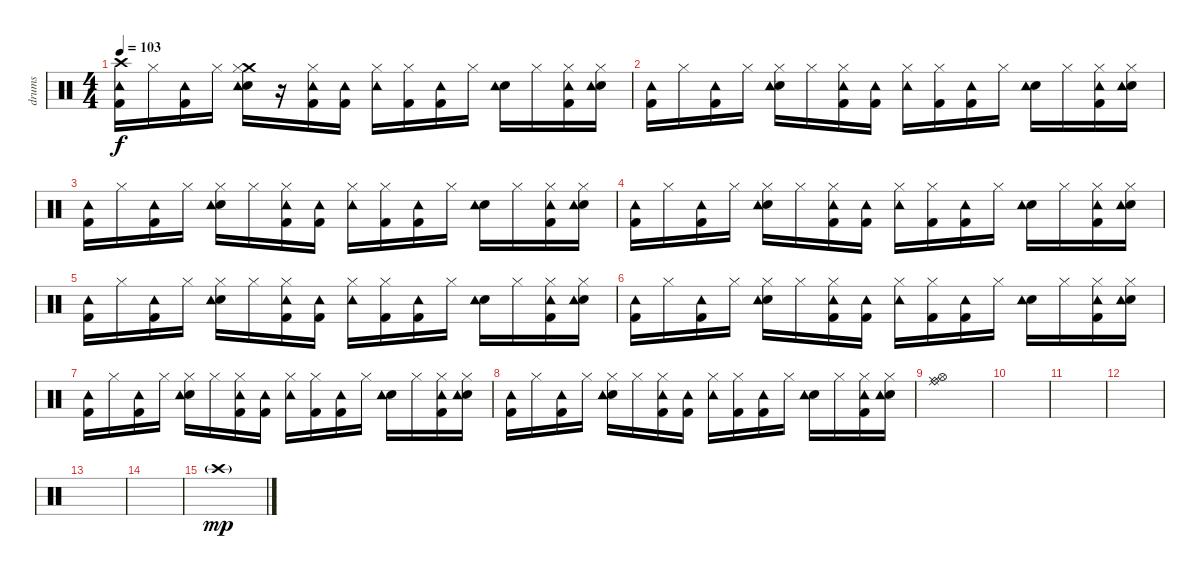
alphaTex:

\track ("drums" "drums") {instrument percussion}
\staff {score}
\articulation defaults
\ts (4 4)
\tempo 103
\clef neutral
\ks c
("Kick (hit) 2" "Crash high (hit)" "Tambourine (hit)").16{dy f} "Hi-Hat (closed)".16 ("Kick (hit) 2" "Tambourine (hit)").16 "Hi-Hat (closed)".16 ("Electric Snare (hit)" "Crash medium (hit)" "Hi-Hat (closed)" "Tambourine (hit)").16 r.16 ("Kick (hit) 2" "Hi-Hat (closed)" "Tambourine (hit)").16 ("Kick (hit) 2" "Tambourine (hit)").16 ("Hi-Hat (closed)" "Tambourine (hit)").16 ("Kick (hit) 2" "Hi-Hat (closed)").16 ("Kick (hit) 2" "Tambourine (hit)").16 "Hi-Hat (closed)".16 ("Electric Snare (hit)" "Tambourine (hit)").16 "Hi-Hat (closed)".16 ("Kick (hit) 2" "Hi-Hat (closed)" "Tambourine (hit)").16 ("Electric Snare (hit)" "Hi-Hat (closed)" "Tambourine (hit)").16 |
("Kick (hit) 2" "Tambourine (hit)").16 "Hi-Hat (closed)".16 ("Kick (hit) 2" "Tambourine (hit)").16 "Hi-Hat (closed)".16 ("Electric Snare (hit)" "Hi-Hat (closed)" "Tambourine (hit)").16 "Hi-Hat (closed)".16 ("Kick (hit) 2" "Hi-Hat (closed)" "Tambourine (hit)").16 ("Kick (hit) 2" "Tambourine (hit)").16 ("Hi-Hat (closed)" "Tambourine (hit)").16 ("Kick (hit) 2" "Hi-Hat (closed)").16 ("Kick (hit) 2" "Tambourine (hit)").16 "Hi-Hat (closed)".16 ("Electric Snare (hit)" "Tambourine (hit)").16 "Hi-Hat (closed)".16 ("Kick (hit) 2" "Hi-Hat (closed)" "Tambourine (hit)").16 ("Electric Snare (hit)" "Hi-Hat (closed)" "Tambourine (hit)").16 |
("Kick (hit) 2" "Tambourine (hit)").16 "Hi-Hat (closed)".16 ("Kick (hit) 2" "Tambourine (hit)").16 "Hi-Hat (closed)".16 ("Electric Snare (hit)" "Hi-Hat (closed)" "Tambourine (hit)").16 "Hi-Hat (closed)".16 ("Kick (hit) 2" "Hi-Hat (closed)" "Tambourine (hit)").16 ("Kick (hit) 2" "Tambourine (hit)").16 ("Hi-Hat (closed)" "Tambourine (hit)").16 ("Kick (hit) 2" "Hi-Hat (closed)").16 ("Kick (hit) 2" "Tambourine (hit)").16 "Hi-Hat (closed)".16 ("Electric Snare (hit)" "Tambourine (hit)").16 "Hi-Hat (closed)".16 ("Kick (hit) 2" "Hi-Hat (closed)" "Tambourine (hit)").16 ("Electric Snare (hit)" "Hi-Hat (closed)" "Tambourine (hit)").16 |
("Kick (hit) 2" "Tambourine (hit)").16 "Hi-Hat (closed)".16 ("Kick (hit) 2" "Tambourine (hit)").16 "Hi-Hat (closed)".16 ("Electric Snare (hit)" "Hi-Hat (closed)" "Tambourine (hit)").16 "Hi-Hat (closed)".16 ("Kick (hit) 2" "Hi-Hat (closed)" "Tambourine (hit)").16 ("Kick (hit) 2" "Tambourine (hit)").16 ("Hi-Hat (closed)" "Tambourine (hit)").16 ("Kick (hit) 2" "Hi-Hat (closed)").16 ("Kick (hit) 2" "Tambourine (hit)").16 "Hi-Hat (closed)".16 ("Electric Snare (hit)" "Tambourine (hit)").16 "Hi-Hat (closed)".16 ("Kick (hit) 2" "Hi-Hat (closed)" "Tambourine (hit)").16 ("Electric Snare (hit)" "Hi-Hat (closed)" "Tambourine (hit)").16 |
("Kick (hit) 2" "Tambourine (hit)").16 "Hi-Hat (closed)".16 ("Kick (hit) 2" "Tambourine (hit)").16 "Hi-Hat (closed)".16 ("Electric Snare (hit)" "Hi-Hat (closed)" "Tambourine (hit)").16 "Hi-Hat (closed)".16 ("Kick (hit) 2" "Hi-Hat (closed)" "Tambourine (hit)").16 ("Kick (hit) 2" "Tambourine (hit)").16 ("Hi-Hat (closed)" "Tambourine (hit)").16 ("Kick (hit) 2" "Hi-Hat (closed)").16 ("Kick (hit) 2" "Tambourine (hit)").16 "Hi-Hat (closed)".16 ("Electric Snare (hit)" "Tambourine (hit)").16 "Hi-Hat (closed)".16 ("Kick (hit) 2" "Hi-Hat (closed)" "Tambourine (hit)").16 ("Electric Snare (hit)" "Hi-Hat (closed)" "Tambourine (hit)").16 |
("Kick (hit) 2" "Tambourine (hit)").16 "Hi-Hat (closed)".16 ("Kick (hit) 2" "Tambourine (hit)").16 "Hi-Hat (closed)".16 ("Electric Snare (hit)" "Hi-Hat (closed)" "Tambourine (hit)").16 "Hi-Hat (closed)".16 ("Kick (hit) 2" "Hi-Hat (closed)" "Tambourine (hit)").16 ("Kick (hit) 2" "Tambourine (hit)").16 ("Hi-Hat (closed)" "Tambourine (hit)").16 ("Kick (hit) 2" "Hi-Hat (closed)").16 ("Kick (hit) 2" "Tambourine (hit)").16 "Hi-Hat (closed)".16 ("Electric Snare (hit)" "Tambourine (hit)").16 "Hi-Hat (closed)".16 ("Kick (hit) 2" "Hi-Hat (closed)" "Tambourine (hit)").16 ("Electric Snare (hit)" "Hi-Hat (closed)" "Tambourine (hit)").16 |
("Kick (hit) 2" "Tambourine (hit)").16 "Hi-Hat (closed)".16 ("Kick (hit) 2" "Tambourine (hit)").16 "Hi-Hat (closed)".16 ("Electric Snare (hit)" "Hi-Hat (closed)" "Tambourine (hit)").16 "Hi-Hat (closed)".16 ("Kick (hit) 2" "Hi-Hat (closed)" "Tambourine (hit)").16 ("Kick (hit) 2" "Tambourine (hit)").16 ("Hi-Hat (closed)" "Tambourine (hit)").16 ("Kick (hit) 2" "Hi-Hat (closed)").16 ("Kick (hit) 2" "Tambourine (hit)").16 "Hi-Hat (closed)".16 ("Electric Snare (hit)" "Tambourine (hit)").16 "Hi-Hat (closed)".16 ("Kick (hit) 2" "Hi-Hat (closed)" "Tambourine (hit)").16 ("Electric Snare (hit)" "Hi-Hat (closed)" "Tambourine (hit)").16 |
("Kick (hit) 2" "Tambourine (hit)").16 "Hi-Hat (closed)".16 ("Kick (hit) 2" "Tambourine (hit)").16 "Hi-Hat (closed)".16 ("Electric Snare (hit)" "Hi-Hat (closed)" "Tambourine (hit)").16 "Hi-Hat (closed)".16 ("Kick (hit) 2" "Hi-Hat (closed)" "Tambourine (hit)").16 ("Kick (hit) 2" "Tambourine (hit)").16 ("Hi-Hat (closed)" "Tambourine (hit)").16 ("Kick (hit) 2" "Hi-Hat (closed)").16 ("Kick (hit) 2" "Tambourine (hit)").16 "Hi-Hat (closed)".16 ("Electric Snare (hit)" "Tambourine (hit)").16 "Hi-Hat (closed)".16 ("Kick (hit) 2" "Hi-Hat (closed)" "Tambourine (hit)").16 ("Electric Snare (hit)" "Hi-Hat (closed)" "Tambourine (hit)").16 |
("Ride (middle)" "Hi-Hat (open)" "Ride (bell)").1 |
|
|
|
|
|
"Crash high (hit)"{g}.1{dy mp}
